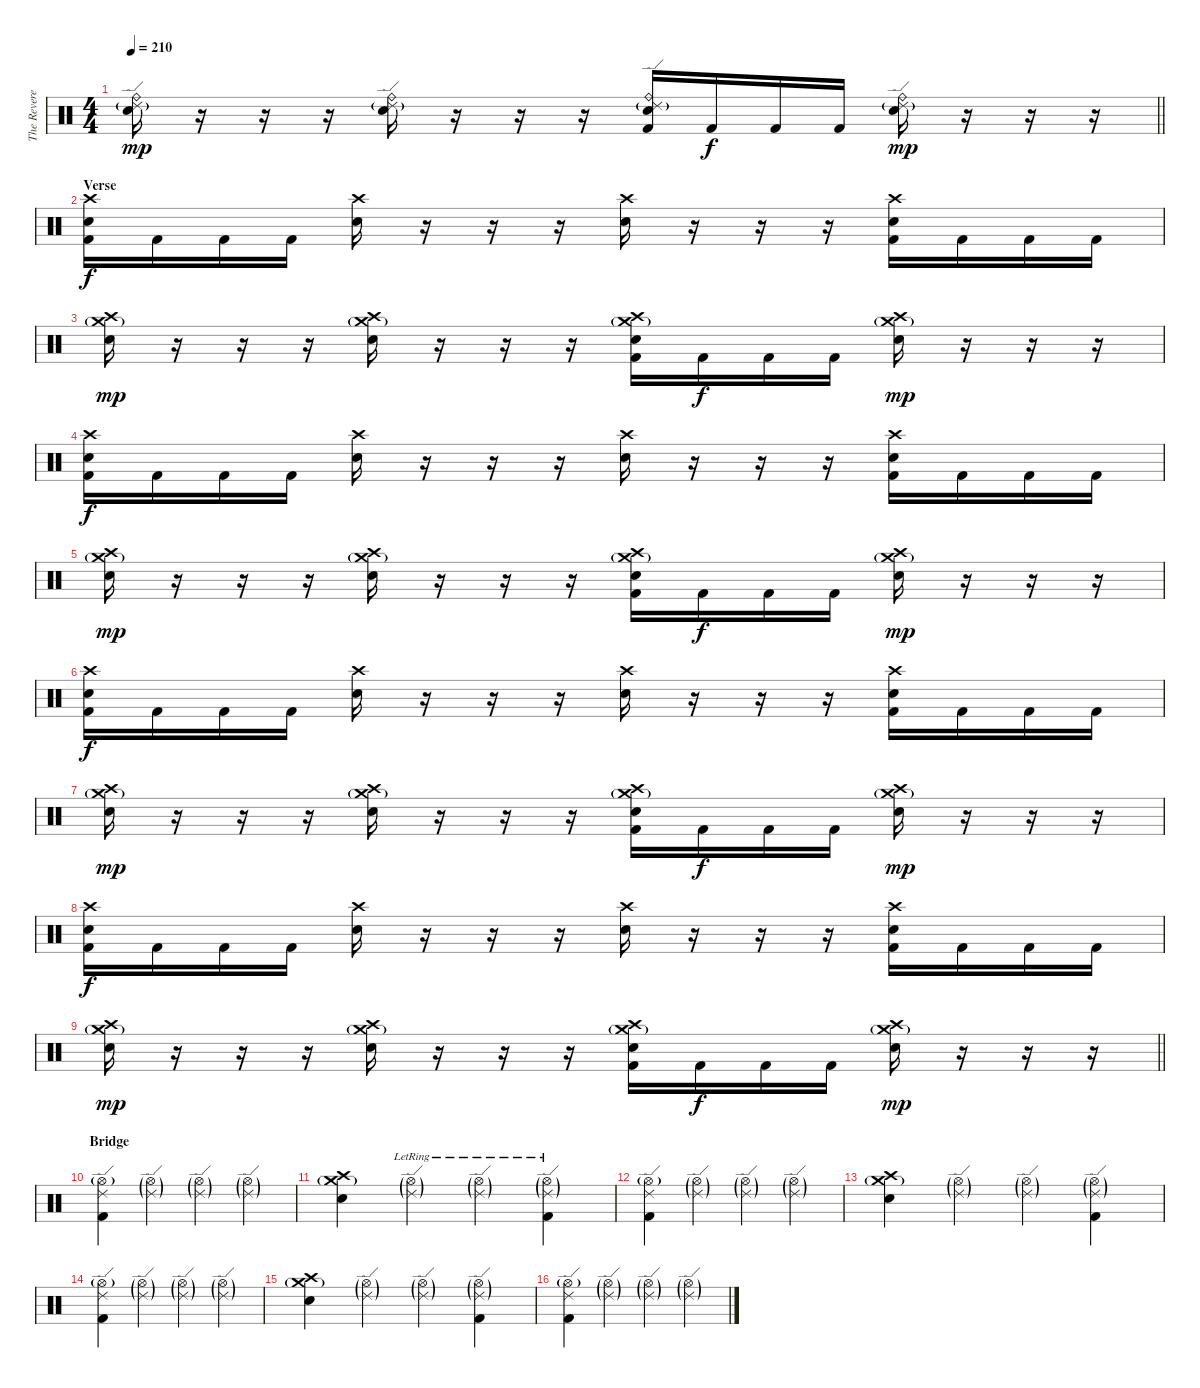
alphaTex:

\track ("The Reverend" "The Revere") {instrument percussion}
\staff {score}
\articulation defaults
\ts (4 4)
\tempo 210
\clef neutral
\barLineRight lightlight
\ks c
("Ride (edge) 2"{g} "Ride (bell)" "Electric Snare (hit)").16{dy mp} r.16 r.16 r.16 ("Ride (edge) 2"{g} "Ride (bell)" "Electric Snare (hit)").16 r.16 r.16 r.16 ("Ride (edge) 2"{g} "Ride (bell)" "Electric Snare (hit)" "Kick (hit) 2").16 "Kick (hit) 2".16{dy f} "Kick (hit) 2".16 "Kick (hit) 2".16 ("Ride (edge) 2"{g} "Ride (bell)" "Electric Snare (hit)").16{dy mp} r.16 r.16 r.16 |
\section ("" "Verse")
("Crash high (hit)" "Electric Snare (hit)" "Kick (hit) 2").16{dy f} "Kick (hit) 2".16 "Kick (hit) 2".16 "Kick (hit) 2".16 ("Crash high (hit)" "Electric Snare (hit)").16 r.16 r.16 r.16 ("Crash high (hit)" "Electric Snare (hit)").16 r.16 r.16 r.16 ("Crash high (hit)" "Electric Snare (hit)" "Kick (hit) 2").16 "Kick (hit) 2".16 "Kick (hit) 2".16 "Kick (hit) 2".16 |
("Crash high (hit)" "Crash medium (hit)"{g} "Electric Snare (hit)").16{dy mp} r.16 r.16 r.16 ("Crash high (hit)" "Crash medium (hit)"{g} "Electric Snare (hit)").16 r.16 r.16 r.16 ("Crash high (hit)" "Crash medium (hit)"{g} "Electric Snare (hit)" "Kick (hit) 2").16 "Kick (hit) 2".16{dy f} "Kick (hit) 2".16 "Kick (hit) 2".16 ("Crash high (hit)" "Crash medium (hit)"{g} "Electric Snare (hit)").16{dy mp} r.16 r.16 r.16 |
("Crash high (hit)" "Electric Snare (hit)" "Kick (hit) 2").16{dy f} "Kick (hit) 2".16 "Kick (hit) 2".16 "Kick (hit) 2".16 ("Crash high (hit)" "Electric Snare (hit)").16 r.16 r.16 r.16 ("Crash high (hit)" "Electric Snare (hit)").16 r.16 r.16 r.16 ("Crash high (hit)" "Electric Snare (hit)" "Kick (hit) 2").16 "Kick (hit) 2".16 "Kick (hit) 2".16 "Kick (hit) 2".16 |
("Crash high (hit)" "Crash medium (hit)"{g} "Electric Snare (hit)").16{dy mp} r.16 r.16 r.16 ("Crash high (hit)" "Crash medium (hit)"{g} "Electric Snare (hit)").16 r.16 r.16 r.16 ("Crash high (hit)" "Crash medium (hit)"{g} "Electric Snare (hit)" "Kick (hit) 2").16 "Kick (hit) 2".16{dy f} "Kick (hit) 2".16 "Kick (hit) 2".16 ("Crash high (hit)" "Crash medium (hit)"{g} "Electric Snare (hit)").16{dy mp} r.16 r.16 r.16 |
("Crash high (hit)" "Electric Snare (hit)" "Kick (hit) 2").16{dy f} "Kick (hit) 2".16 "Kick (hit) 2".16 "Kick (hit) 2".16 ("Crash high (hit)" "Electric Snare (hit)").16 r.16 r.16 r.16 ("Crash high (hit)" "Electric Snare (hit)").16 r.16 r.16 r.16 ("Crash high (hit)" "Electric Snare (hit)" "Kick (hit) 2").16 "Kick (hit) 2".16 "Kick (hit) 2".16 "Kick (hit) 2".16 |
("Crash high (hit)" "Crash medium (hit)"{g} "Electric Snare (hit)").16{dy mp} r.16 r.16 r.16 ("Crash high (hit)" "Crash medium (hit)"{g} "Electric Snare (hit)").16 r.16 r.16 r.16 ("Crash high (hit)" "Crash medium (hit)"{g} "Electric Snare (hit)" "Kick (hit) 2").16 "Kick (hit) 2".16{dy f} "Kick (hit) 2".16 "Kick (hit) 2".16 ("Crash high (hit)" "Crash medium (hit)"{g} "Electric Snare (hit)").16{dy mp} r.16 r.16 r.16 |
("Crash high (hit)" "Electric Snare (hit)" "Kick (hit) 2").16{dy f} "Kick (hit) 2".16 "Kick (hit) 2".16 "Kick (hit) 2".16 ("Crash high (hit)" "Electric Snare (hit)").16 r.16 r.16 r.16 ("Crash high (hit)" "Electric Snare (hit)").16 r.16 r.16 r.16 ("Crash high (hit)" "Electric Snare (hit)" "Kick (hit) 2").16 "Kick (hit) 2".16 "Kick (hit) 2".16 "Kick (hit) 2".16 |
\barLineRight lightlight
("Crash high (hit)" "Crash medium (hit)"{g} "Electric Snare (hit)").16{dy mp} r.16 r.16 r.16 ("Crash high (hit)" "Crash medium (hit)"{g} "Electric Snare (hit)").16 r.16 r.16 r.16 ("Crash high (hit)" "Crash medium (hit)"{g} "Electric Snare (hit)" "Kick (hit) 2").16 "Kick (hit) 2".16{dy f} "Kick (hit) 2".16 "Kick (hit) 2".16 ("Crash high (hit)" "Crash medium (hit)"{g} "Electric Snare (hit)").16{dy mp} r.16 r.16 r.16 |
\section ("" "Bridge")
("Hi-Hat (open)"{g} "Ride (edge) 2" "Kick (hit) 2").4 ("Hi-Hat (open)"{g} "Ride (edge) 2"{g}).4 ("Hi-Hat (open)"{g} "Ride (edge) 2"{g}).4 ("Hi-Hat (open)"{g} "Ride (edge) 2"{g}).4 |
("Crash medium (hit)"{g} "Crash high (hit)" "Electric Snare (hit)").4 ("Hi-Hat (open)"{g} "Ride (edge) 2"{g lr}).4 ("Hi-Hat (open)"{g} "Ride (edge) 2"{g lr}).4 ("Hi-Hat (open)"{g} "Ride (edge) 2"{g lr} "Kick (hit) 2").4 |
("Hi-Hat (open)"{g} "Ride (edge) 2" "Kick (hit) 2").4 ("Hi-Hat (open)"{g} "Ride (edge) 2"{g}).4 ("Hi-Hat (open)"{g} "Ride (edge) 2"{g}).4 ("Hi-Hat (open)"{g} "Ride (edge) 2"{g}).4 |
("Crash medium (hit)"{g} "Crash high (hit)" "Electric Snare (hit)").4 ("Hi-Hat (open)"{g} "Ride (edge) 2"{g}).4 ("Hi-Hat (open)"{g} "Ride (edge) 2"{g}).4 ("Hi-Hat (open)"{g} "Ride (edge) 2"{g} "Kick (hit) 2").4 |
("Hi-Hat (open)"{g} "Ride (edge) 2" "Kick (hit) 2").4 ("Hi-Hat (open)"{g} "Ride (edge) 2"{g}).4 ("Hi-Hat (open)"{g} "Ride (edge) 2"{g}).4 ("Hi-Hat (open)"{g} "Ride (edge) 2"{g}).4 |
("Crash medium (hit)"{g} "Crash high (hit)" "Electric Snare (hit)").4 ("Hi-Hat (open)"{g} "Ride (edge) 2"{g}).4 ("Hi-Hat (open)"{g} "Ride (edge) 2"{g}).4 ("Hi-Hat (open)"{g} "Ride (edge) 2"{g} "Kick (hit) 2").4 |
("Hi-Hat (open)"{g} "Ride (edge) 2" "Kick (hit) 2").4 ("Hi-Hat (open)"{g} "Ride (edge) 2"{g}).4 ("Hi-Hat (open)"{g} "Ride (edge) 2"{g}).4 ("Hi-Hat (open)"{g} "Ride (edge) 2"{g}).4
